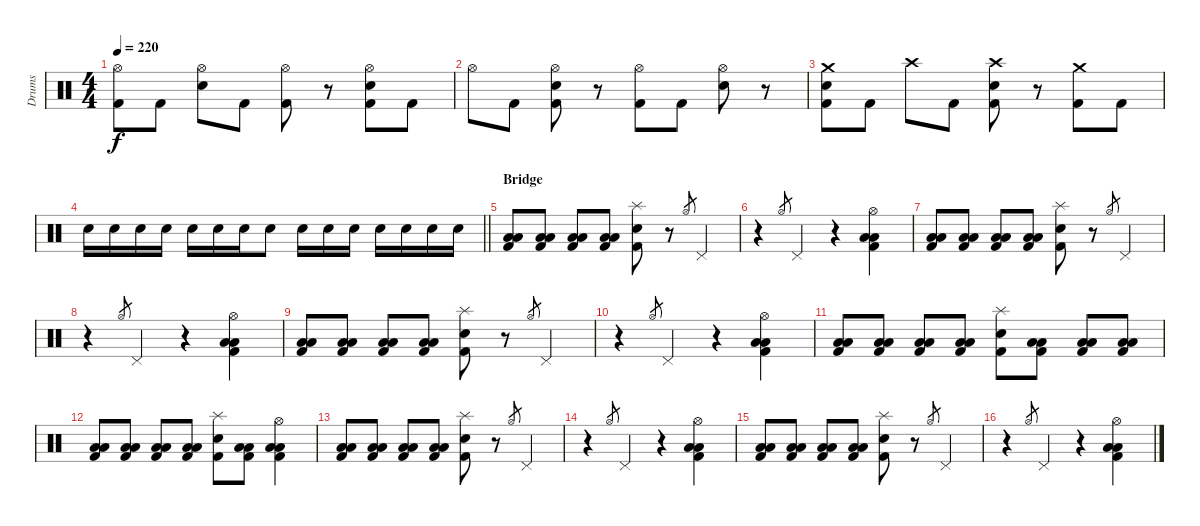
\track ("Drums" "Drums") {instrument percussion}
\staff {score}
\articulation defaults
\ts (4 4)
\tempo 220
\clef neutral
\ks c
("Hi-Hat (open)" "Kick (hit) 2").8{dy f} "Kick (hit) 2".8 ("Hi-Hat (open)" "Electric Snare (hit)").8 "Kick (hit) 2".8 ("Hi-Hat (open)" "Kick (hit) 2").8 r.8 ("Hi-Hat (open)" "Electric Snare (hit)" "Kick (hit) 2").8 "Kick (hit) 2".8 |
"Hi-Hat (open)".8 "Kick (hit) 2".8 ("Hi-Hat (open)" "Electric Snare (hit)" "Kick (hit) 2").8 r.8 ("Hi-Hat (open)" "Kick (hit) 2").8 "Kick (hit) 2".8 ("Hi-Hat (open)" "Electric Snare (hit)").8 r.8 |
("Crash medium (hit)" "Electric Snare (hit)" "Kick (hit) 2").8 "Kick (hit) 2".8 "Crash high (hit)".8 "Kick (hit) 2".8 ("Crash high (hit)" "Electric Snare (hit)" "Kick (hit) 2").8 r.8 ("Crash medium (hit)" "Kick (hit) 2").8 "Kick (hit) 2".8 |
\barLineRight lightlight "Electric Snare (hit)".16 "Electric Snare (hit)".16 "Electric Snare (hit)".16 "Electric Snare (hit)".16 "Electric Snare (hit)".16 "Electric Snare (hit)".16 "Electric Snare (hit)".16 "Electric Snare (hit)".8 "Electric Snare (hit)".16 "Electric Snare (hit)".16 "Electric Snare (hit)".16 "Electric Snare (hit)".16 "Electric Snare (hit)".16 "Electric Snare (hit)".16 "Electric Snare (hit)".16
|
\section ("" "Bridge")
("Low Tom (hit)" "Low Floor Tom (hit)" "Kick (hit) 2").8 ("Low Tom (hit)" "Low Floor Tom (hit)" "Kick (hit) 2").8 ("Low Tom (hit)" "Low Floor Tom (hit)" "Kick (hit) 2").8 ("Low Tom (hit)" "Low Floor Tom (hit)" "Kick (hit) 2").8 ("Splash (hit)" "Electric Snare (hit)" "Kick (hit) 2").8 r.8 "Hi-Hat (open)".8{gr} "Pedal Hi-Hat (hit)".4 |
r.4 "Hi-Hat (open)".8{gr} "Pedal Hi-Hat (hit)".4 r.4 ("Hi-Hat (open)" "Low Tom (hit)" "Low Floor Tom (hit)" "Kick (hit) 2").4 |
("Low Tom (hit)" "Low Floor Tom (hit)" "Kick (hit) 2").8 ("Low Tom (hit)" "Low Floor Tom (hit)" "Kick (hit) 2").8 ("Low Tom (hit)" "Low Floor Tom (hit)" "Kick (hit) 2").8 ("Low Tom (hit)" "Low Floor Tom (hit)" "Kick (hit) 2").8 ("Splash (hit)" "Electric Snare (hit)" "Kick (hit) 2").8 r.8 "Hi-Hat (open)".8{gr} "Pedal Hi-Hat (hit)".4 |
r.4 "Hi-Hat (open)".8{gr} "Pedal Hi-Hat (hit)".4 r.4 ("Hi-Hat (open)" "Low Tom (hit)" "Low Floor Tom (hit)" "Kick (hit) 2").4 |
("Low Tom (hit)" "Low Floor Tom (hit)" "Kick (hit) 2").8 ("Low Tom (hit)" "Low Floor Tom (hit)" "Kick (hit) 2").8 ("Low Tom (hit)" "Low Floor Tom (hit)" "Kick (hit) 2").8 ("Low Tom (hit)" "Low Floor Tom (hit)" "Kick (hit) 2").8 ("Splash (hit)" "Electric Snare (hit)" "Kick (hit) 2").8 r.8 "Hi-Hat (open)".8{gr} "Pedal Hi-Hat (hit)".4 |
r.4 "Hi-Hat (open)".8{gr} "Pedal Hi-Hat (hit)".4 r.4 ("Hi-Hat (open)" "Low Tom (hit)" "Low Floor Tom (hit)" "Kick (hit) 2").4 |
("Low Tom (hit)" "Low Floor Tom (hit)" "Kick (hit) 2").8 ("Low Tom (hit)" "Low Floor Tom (hit)" "Kick (hit) 2").8 ("Low Tom (hit)" "Low Floor Tom (hit)" "Kick (hit) 2").8 ("Low Tom (hit)" "Low Floor Tom (hit)" "Kick (hit) 2").8 ("Splash (hit)" "Electric Snare (hit)" "Kick (hit) 2").8 ("Low Tom (hit)" "Low Floor Tom (hit)" "Kick (hit) 2").8 ("Low Tom (hit)" "Low Floor Tom (hit)" "Kick (hit) 2").8 ("Low Tom (hit)" "Low Floor Tom (hit)" "Kick (hit) 2").8 |
("Low Tom (hit)" "Low Floor Tom (hit)" "Kick (hit) 2").8 ("Low Tom (hit)" "Low Floor Tom (hit)" "Kick (hit) 2").8 ("Low Tom (hit)" "Low Floor Tom (hit)" "Kick (hit) 2").8 ("Low Tom (hit)" "Low Floor Tom (hit)" "Kick (hit) 2").8 ("Splash (hit)" "Electric Snare (hit)" "Kick (hit) 2").8 ("Low Tom (hit)" "Low Floor Tom (hit)" "Kick (hit) 2").8 ("Hi-Hat (open)" "Low Tom (hit)" "Low Floor Tom (hit)" "Kick (hit) 2").4 |
("Low Tom (hit)" "Low Floor Tom (hit)" "Kick (hit) 2").8 ("Low Tom (hit)" "Low Floor Tom (hit)" "Kick (hit) 2").8 ("Low Tom (hit)" "Low Floor Tom (hit)" "Kick (hit) 2").8 ("Low Tom (hit)" "Low Floor Tom (hit)" "Kick (hit) 2").8 ("Splash (hit)" "Electric Snare (hit)" "Kick (hit) 2").8 r.8 "Hi-Hat (open)".8{gr} "Pedal Hi-Hat (hit)".4 |
r.4 "Hi-Hat (open)".8{gr} "Pedal Hi-Hat (hit)".4 r.4 ("Hi-Hat (open)" "Low Tom (hit)" "Low Floor Tom (hit)" "Kick (hit) 2").4 |
("Low Tom (hit)" "Low Floor Tom (hit)" "Kick (hit) 2").8 ("Low Tom (hit)" "Low Floor Tom (hit)" "Kick (hit) 2").8 ("Low Tom (hit)" "Low Floor Tom (hit)" "Kick (hit) 2").8 ("Low Tom (hit)" "Low Floor Tom (hit)" "Kick (hit) 2").8 ("Splash (hit)" "Electric Snare (hit)" "Kick (hit) 2").8 r.8 "Hi-Hat (open)".8{gr} "Pedal Hi-Hat (hit)".4 |
r.4 "Hi-Hat (open)".8{gr} "Pedal Hi-Hat (hit)".4 r.4 ("Hi-Hat (open)" "Low Tom (hit)" "Low Floor Tom (hit)" "Kick (hit) 2").4
